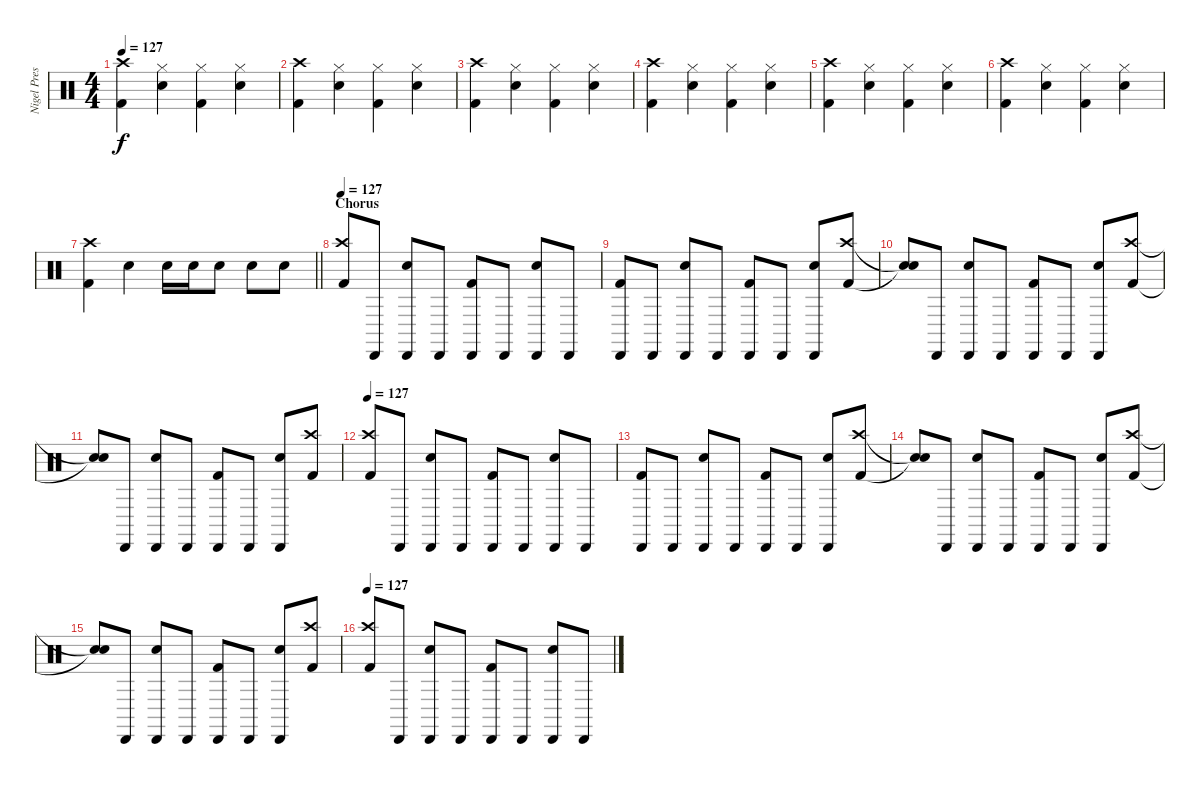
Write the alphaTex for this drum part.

\track ("Nigel Preston" "Nigel Pres") {instrument percussion}
\staff {score}
\articulation defaults
\ts (4 4)
\tempo 127
\clef neutral
\ks c
("Kick (hit) 2" "Crash high (hit)").4{dy f} ("Snare (hit) 2" "Hi-Hat (closed)").4 ("Kick (hit) 2" "Hi-Hat (closed)").4 ("Snare (hit) 2" "Hi-Hat (closed)").4 |
("Kick (hit) 2" "Crash high (hit)").4 ("Snare (hit) 2" "Hi-Hat (closed)").4 ("Kick (hit) 2" "Hi-Hat (closed)").4 ("Snare (hit) 2" "Hi-Hat (closed)").4 |
("Kick (hit) 2" "Crash high (hit)").4 ("Snare (hit) 2" "Hi-Hat (closed)").4 ("Kick (hit) 2" "Hi-Hat (closed)").4 ("Snare (hit) 2" "Hi-Hat (closed)").4 |
("Kick (hit) 2" "Crash high (hit)").4 ("Snare (hit) 2" "Hi-Hat (closed)").4 ("Kick (hit) 2" "Hi-Hat (closed)").4 ("Snare (hit) 2" "Hi-Hat (closed)").4 |
("Kick (hit) 2" "Crash high (hit)").4 ("Snare (hit) 2" "Hi-Hat (closed)").4 ("Kick (hit) 2" "Hi-Hat (closed)").4 ("Snare (hit) 2" "Hi-Hat (closed)").4 |
("Kick (hit) 2" "Crash high (hit)").4 ("Snare (hit) 2" "Hi-Hat (closed)").4 ("Kick (hit) 2" "Hi-Hat (closed)").4 ("Snare (hit) 2" "Hi-Hat (closed)").4 |
\barLineRight lightlight
("Kick (hit) 2" "Crash high (hit)").4 "Snare (hit) 2".4 "Snare (hit) 2".16 "Snare (hit) 2".16 "Snare (hit) 2".8 "Snare (hit) 2".8 "Snare (hit) 2".8 |
\section ("" "Chorus")
\tempo 127
("Kick (hit) 2" "Crash high (hit)").8 "Cabasa (hit)".8 ("Snare (hit) 2" "Cabasa (hit)").8 "Cabasa (hit)".8 ("Kick (hit) 2" "Cabasa (hit)").8 "Cabasa (hit)".8 ("Snare (hit) 2" "Cabasa (hit)").8 "Cabasa (hit)".8 |
("Kick (hit) 2" "Cabasa (hit)").8 "Cabasa (hit)".8 ("Snare (hit) 2" "Cabasa (hit)").8 "Cabasa (hit)".8 ("Kick (hit) 2" "Cabasa (hit)").8 "Cabasa (hit)".8 ("Snare (hit) 2" "Cabasa (hit)").8 ("Kick (hit) 2" "Crash high (hit)").8 |
("Snare (hit)"{t} "Snare (hit)"{t}).8 "Cabasa (hit)".8 ("Snare (hit) 2" "Cabasa (hit)").8 "Cabasa (hit)".8 ("Kick (hit) 2" "Cabasa (hit)").8 "Cabasa (hit)".8 ("Snare (hit) 2" "Cabasa (hit)").8 ("Kick (hit) 2" "Crash high (hit)").8 |
("Snare (hit)"{t} "Snare (hit)"{t}).8 "Cabasa (hit)".8 ("Snare (hit) 2" "Cabasa (hit)").8 "Cabasa (hit)".8 ("Kick (hit) 2" "Cabasa (hit)").8 "Cabasa (hit)".8 ("Snare (hit) 2" "Cabasa (hit)").8 ("Kick (hit) 2" "Crash high (hit)").8 |
\tempo 127
("Kick (hit) 2" "Crash high (hit)").8 "Cabasa (hit)".8 ("Snare (hit) 2" "Cabasa (hit)").8 "Cabasa (hit)".8 ("Kick (hit) 2" "Cabasa (hit)").8 "Cabasa (hit)".8 ("Snare (hit) 2" "Cabasa (hit)").8 "Cabasa (hit)".8 |
("Kick (hit) 2" "Cabasa (hit)").8 "Cabasa (hit)".8 ("Snare (hit) 2" "Cabasa (hit)").8 "Cabasa (hit)".8 ("Kick (hit) 2" "Cabasa (hit)").8 "Cabasa (hit)".8 ("Snare (hit) 2" "Cabasa (hit)").8 ("Kick (hit) 2" "Crash high (hit)").8 |
("Snare (hit)"{t} "Snare (hit)"{t}).8 "Cabasa (hit)".8 ("Snare (hit) 2" "Cabasa (hit)").8 "Cabasa (hit)".8 ("Kick (hit) 2" "Cabasa (hit)").8 "Cabasa (hit)".8 ("Snare (hit) 2" "Cabasa (hit)").8 ("Kick (hit) 2" "Crash high (hit)").8 |
("Snare (hit)"{t} "Snare (hit)"{t}).8 "Cabasa (hit)".8 ("Snare (hit) 2" "Cabasa (hit)").8 "Cabasa (hit)".8 ("Kick (hit) 2" "Cabasa (hit)").8 "Cabasa (hit)".8 ("Snare (hit) 2" "Cabasa (hit)").8 ("Kick (hit) 2" "Crash high (hit)").8 |
\tempo 127
("Kick (hit) 2" "Crash high (hit)").8 "Cabasa (hit)".8 ("Snare (hit) 2" "Cabasa (hit)").8 "Cabasa (hit)".8 ("Kick (hit) 2" "Cabasa (hit)").8 "Cabasa (hit)".8 ("Snare (hit) 2" "Cabasa (hit)").8 "Cabasa (hit)".8
